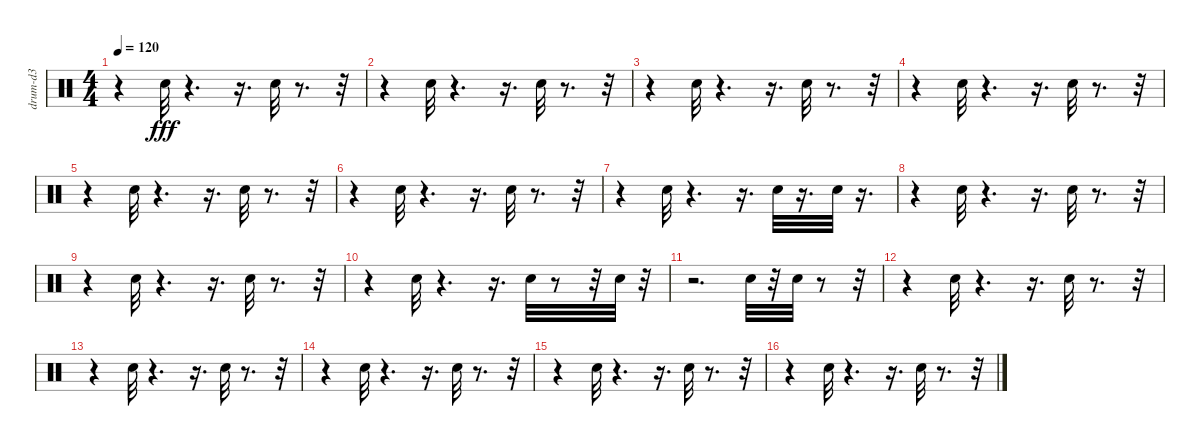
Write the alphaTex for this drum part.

\track ("drum-d3" "drum-d3") {instrument percussion}
\staff {score}
\articulation defaults
\ts (4 4)
\tempo 120
\clef neutral
\ks c
r.4{dy fff} "Snare (hit) 2".32 r.4{d} r.16{d} "Snare (hit) 2".32 r.8{d} r.32 |
r.4 "Snare (hit) 2".32 r.4{d} r.16{d} "Snare (hit) 2".32 r.8{d} r.32 |
r.4 "Snare (hit) 2".32 r.4{d} r.16{d} "Snare (hit) 2".32 r.8{d} r.32 |
r.4 "Snare (hit) 2".32 r.4{d} r.16{d} "Snare (hit) 2".32 r.8{d} r.32 |
r.4 "Snare (hit) 2".32 r.4{d} r.16{d} "Snare (hit) 2".32 r.8{d} r.32 |
r.4 "Snare (hit) 2".32 r.4{d} r.16{d} "Snare (hit) 2".32 r.8{d} r.32 |
r.4 "Snare (hit) 2".32 r.4{d} r.16{d} "Snare (hit) 2".32 r.16{d} "Snare (hit) 2".32 r.16{d} |
r.4 "Snare (hit) 2".32 r.4{d} r.16{d} "Snare (hit) 2".32 r.8{d} r.32 |
r.4 "Snare (hit) 2".32 r.4{d} r.16{d} "Snare (hit) 2".32 r.8{d} r.32 |
r.4 "Snare (hit) 2".32 r.4{d} r.16{d} "Snare (hit) 2".32 r.8 r.32 "Snare (hit) 2".32 r.32 |
r.2{d} "Snare (hit) 2".32 r.32 "Snare (hit) 2".32 r.8 r.32 |
r.4 "Snare (hit) 2".32 r.4{d} r.16{d} "Snare (hit) 2".32 r.8{d} r.32 |
r.4 "Snare (hit) 2".32 r.4{d} r.16{d} "Snare (hit) 2".32 r.8{d} r.32 |
r.4 "Snare (hit) 2".32 r.4{d} r.16{d} "Snare (hit) 2".32 r.8{d} r.32 |
r.4 "Snare (hit) 2".32 r.4{d} r.16{d} "Snare (hit) 2".32 r.8{d} r.32 |
r.4 "Snare (hit) 2".32 r.4{d} r.16{d} "Snare (hit) 2".32 r.8{d} r.32
